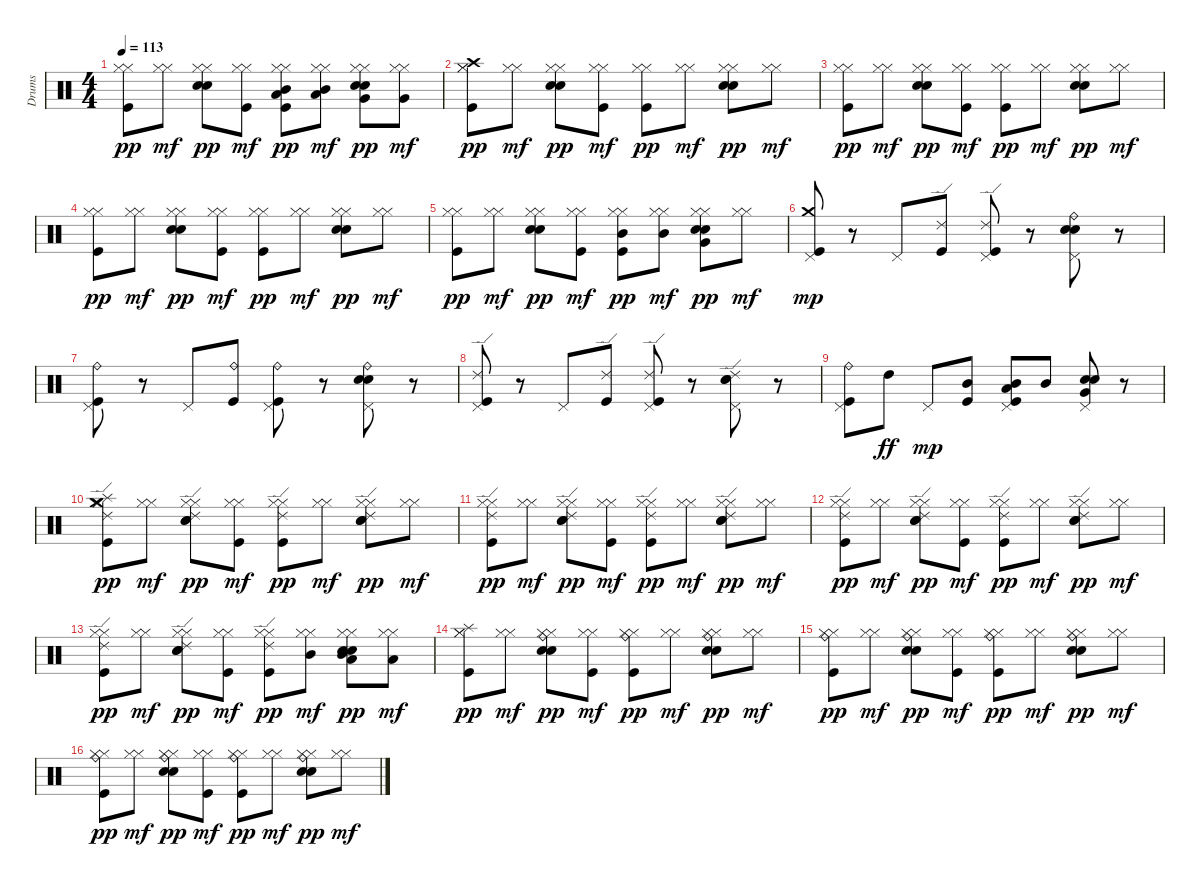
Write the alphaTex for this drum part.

\track ("Drums" "Drums") {instrument percussion}
\staff {score}
\articulation defaults
\ts (4 4)
\tempo 113
\clef neutral
\ks c
("Kick (hit)" "Hi-Hat (closed)" "Hi-Hat (closed)").8{dy pp} ("Hi-Hat (closed)" "Hi-Hat (closed)").8{dy mf} ("Snare (hit) 2" "Electric Snare (hit)" "Hi-Hat (closed)" "Hi-Hat (closed)").8{dy pp} ("Kick (hit)" "Hi-Hat (closed)" "Hi-Hat (closed)").8{dy mf} ("Low Tom (hit)" "Kick (hit)" "Hi-Hat (closed)" "Mid Tom (hit)" "Hi-Hat (closed)").8{dy pp} ("Low Tom (hit)" "Hi-Hat (closed)" "Mid Tom (hit)" "Hi-Hat (closed)").8{dy mf} ("Very Low Tom (hit)" "Snare (hit) 2" "Electric Snare (hit)" "Hi-Hat (closed)" "Hi-Hat (closed)").8{dy pp} ("Very Low Tom (hit)" "Hi-Hat (closed)" "Hi-Hat (closed)").8{dy mf} |
("Crash high (hit)" "Kick (hit)" "Hi-Hat (closed)" "Hi-Hat (closed)").8{dy pp} ("Hi-Hat (closed)" "Hi-Hat (closed)").8{dy mf} ("Snare (hit) 2" "Electric Snare (hit)" "Hi-Hat (closed)" "Hi-Hat (closed)").8{dy pp} ("Kick (hit)" "Hi-Hat (closed)" "Hi-Hat (closed)").8{dy mf} ("Kick (hit)" "Hi-Hat (closed)" "Hi-Hat (closed)").8{dy pp} ("Hi-Hat (closed)" "Hi-Hat (closed)").8{dy mf} ("Snare (hit) 2" "Electric Snare (hit)" "Hi-Hat (closed)" "Hi-Hat (closed)").8{dy pp} ("Hi-Hat (closed)" "Hi-Hat (closed)").8{dy mf} |
("Kick (hit)" "Hi-Hat (closed)" "Hi-Hat (closed)").8{dy pp} ("Hi-Hat (closed)" "Hi-Hat (closed)").8{dy mf} ("Snare (hit) 2" "Electric Snare (hit)" "Hi-Hat (closed)" "Hi-Hat (closed)").8{dy pp} ("Kick (hit)" "Hi-Hat (closed)" "Hi-Hat (closed)").8{dy mf} ("Kick (hit)" "Hi-Hat (closed)" "Hi-Hat (closed)").8{dy pp} ("Hi-Hat (closed)" "Hi-Hat (closed)").8{dy mf} ("Snare (hit) 2" "Electric Snare (hit)" "Hi-Hat (closed)" "Hi-Hat (closed)").8{dy pp} ("Hi-Hat (closed)" "Hi-Hat (closed)").8{dy mf} |
("Kick (hit)" "Hi-Hat (closed)" "Hi-Hat (closed)").8{dy pp} ("Hi-Hat (closed)" "Hi-Hat (closed)").8{dy mf} ("Snare (hit) 2" "Electric Snare (hit)" "Hi-Hat (closed)" "Hi-Hat (closed)").8{dy pp} ("Kick (hit)" "Hi-Hat (closed)" "Hi-Hat (closed)").8{dy mf} ("Kick (hit)" "Hi-Hat (closed)" "Hi-Hat (closed)").8{dy pp} ("Hi-Hat (closed)" "Hi-Hat (closed)").8{dy mf} ("Snare (hit) 2" "Electric Snare (hit)" "Hi-Hat (closed)" "Hi-Hat (closed)").8{dy pp} ("Hi-Hat (closed)" "Hi-Hat (closed)").8{dy mf} |
("Kick (hit)" "Hi-Hat (closed)" "Hi-Hat (closed)").8{dy pp} ("Hi-Hat (closed)" "Hi-Hat (closed)").8{dy mf} ("Snare (hit) 2" "Electric Snare (hit)" "Hi-Hat (closed)" "Hi-Hat (closed)").8{dy pp} ("Kick (hit)" "Hi-Hat (closed)" "Hi-Hat (closed)").8{dy mf} ("Mid Tom (hit)" "Kick (hit)" "Hi-Hat (closed)" "Hi-Hat (closed)").8{dy pp} ("Mid Tom (hit)" "Hi-Hat (closed)" "Hi-Hat (closed)").8{dy mf} ("Very Low Tom (hit)" "Snare (hit) 2" "Electric Snare (hit)" "Hi-Hat (closed)" "Hi-Hat (closed)").8{dy pp} ("Hi-Hat (closed)" "Hi-Hat (closed)").8{dy mf} |
("Crash medium (hit)" "Kick (hit)" "Pedal Hi-Hat (hit)").8{dy mp} r.8 "Pedal Hi-Hat (hit)".8 ("Ride (edge) 2" "Kick (hit)").8 ("Ride (edge) 2" "Kick (hit)" "Pedal Hi-Hat (hit)").8 r.8 ("Ride (bell)" "Snare (hit) 2" "Electric Snare (hit)" "Pedal Hi-Hat (hit)").8 r.8 |
("Ride (bell)" "Kick (hit)" "Pedal Hi-Hat (hit)").8 r.8 "Pedal Hi-Hat (hit)".8 ("Ride (bell)" "Kick (hit)").8 ("Ride (bell)" "Kick (hit)" "Pedal Hi-Hat (hit)").8 r.8 ("Ride (bell)" "Snare (hit) 2" "Electric Snare (hit)" "Pedal Hi-Hat (hit)").8 r.8 |
("Ride (edge) 2" "Kick (hit)" "Pedal Hi-Hat (hit)").8 r.8 "Pedal Hi-Hat (hit)".8 ("Ride (edge) 2" "Kick (hit)").8 ("Ride (edge) 2" "Kick (hit)" "Pedal Hi-Hat (hit)").8 r.8 ("Ride (edge) 2" "Snare (hit) 2" "Electric Snare (hit)" "Pedal Hi-Hat (hit)").8 r.8 |
("Ride (bell)" "Kick (hit)" "Pedal Hi-Hat (hit)").8 "High Tom (hit)".8{dy ff} "Pedal Hi-Hat (hit)".8{dy mp} ("Mid Tom (hit)" "Kick (hit)").8 ("Mid Tom (hit)" "Low Tom (hit)" "Kick (hit)" "Pedal Hi-Hat (hit)").8 "Mid Tom (hit)".8 ("Very Low Tom (hit)" "Snare (hit) 2" "Electric Snare (hit)" "Pedal Hi-Hat (hit)").8 r.8 |
("Crash medium (hit)" "Ride (edge) 2" "Splash (hit)" "Kick (hit)" "Hi-Hat (closed)" "Hi-Hat (closed)").8{dy pp} ("Hi-Hat (closed)" "Hi-Hat (closed)").8{dy mf} ("Ride (edge) 2" "Snare (hit) 2" "Electric Snare (hit)" "Hi-Hat (closed)" "Hi-Hat (closed)").8{dy pp} ("Kick (hit)" "Hi-Hat (closed)" "Hi-Hat (closed)").8{dy mf} ("Ride (edge) 2" "Kick (hit)" "Hi-Hat (closed)" "Hi-Hat (closed)").8{dy pp} ("Hi-Hat (closed)" "Hi-Hat (closed)").8{dy mf} ("Ride (edge) 2" "Snare (hit) 2" "Electric Snare (hit)" "Hi-Hat (closed)" "Hi-Hat (closed)").8{dy pp} ("Hi-Hat (closed)" "Hi-Hat (closed)").8{dy mf} |
("Ride (edge) 2" "Kick (hit)" "Hi-Hat (closed)" "Hi-Hat (closed)").8{dy pp} ("Hi-Hat (closed)" "Hi-Hat (closed)").8{dy mf} ("Ride (edge) 2" "Snare (hit) 2" "Electric Snare (hit)" "Hi-Hat (closed)" "Hi-Hat (closed)").8{dy pp} ("Kick (hit)" "Hi-Hat (closed)" "Hi-Hat (closed)").8{dy mf} ("Ride (edge) 2" "Kick (hit)" "Hi-Hat (closed)" "Hi-Hat (closed)").8{dy pp} ("Hi-Hat (closed)" "Hi-Hat (closed)").8{dy mf} ("Ride (edge) 2" "Snare (hit) 2" "Electric Snare (hit)" "Hi-Hat (closed)" "Hi-Hat (closed)").8{dy pp} ("Hi-Hat (closed)" "Hi-Hat (closed)").8{dy mf} |
("Ride (edge) 2" "Kick (hit)" "Hi-Hat (closed)" "Hi-Hat (closed)").8{dy pp} ("Hi-Hat (closed)" "Hi-Hat (closed)").8{dy mf} ("Ride (edge) 2" "Snare (hit) 2" "Electric Snare (hit)" "Hi-Hat (closed)" "Hi-Hat (closed)").8{dy pp} ("Kick (hit)" "Hi-Hat (closed)" "Hi-Hat (closed)").8{dy mf} ("Ride (edge) 2" "Kick (hit)" "Hi-Hat (closed)" "Hi-Hat (closed)").8{dy pp} ("Hi-Hat (closed)" "Hi-Hat (closed)").8{dy mf} ("Ride (edge) 2" "Snare (hit) 2" "Electric Snare (hit)" "Hi-Hat (closed)" "Hi-Hat (closed)").8{dy pp} ("Hi-Hat (closed)" "Hi-Hat (closed)").8{dy mf} |
("Ride (edge) 2" "Kick (hit)" "Hi-Hat (closed)" "Hi-Hat (closed)").8{dy pp} ("Hi-Hat (closed)" "Hi-Hat (closed)").8{dy mf} ("Ride (edge) 2" "Snare (hit) 2" "Electric Snare (hit)" "Hi-Hat (closed)" "Hi-Hat (closed)").8{dy pp} ("Kick (hit)" "Hi-Hat (closed)" "Hi-Hat (closed)").8{dy mf} ("Ride (edge) 2" "Kick (hit)" "Hi-Hat (closed)" "Hi-Hat (closed)").8{dy pp} ("Mid Tom (hit)" "Hi-Hat (closed)" "Hi-Hat (closed)").8{dy mf} ("Mid Tom (hit)" "Low Tom (hit)" "Snare (hit) 2" "Electric Snare (hit)" "Hi-Hat (closed)" "Hi-Hat (closed)").8{dy pp} ("Low Tom (hit)" "Hi-Hat (closed)" "Hi-Hat (closed)").8{dy mf} |
("Splash (hit)" "Kick (hit)" "Hi-Hat (closed)" "Hi-Hat (closed)").8{dy pp} ("Hi-Hat (closed)" "Hi-Hat (closed)").8{dy mf} ("Ride (bell)" "Snare (hit) 2" "Electric Snare (hit)" "Hi-Hat (closed)" "Hi-Hat (closed)").8{dy pp} ("Kick (hit)" "Hi-Hat (closed)" "Hi-Hat (closed)").8{dy mf} ("Ride (bell)" "Kick (hit)" "Hi-Hat (closed)" "Hi-Hat (closed)").8{dy pp} ("Hi-Hat (closed)" "Hi-Hat (closed)").8{dy mf} ("Ride (bell)" "Snare (hit) 2" "Electric Snare (hit)" "Hi-Hat (closed)" "Hi-Hat (closed)").8{dy pp} ("Hi-Hat (closed)" "Hi-Hat (closed)").8{dy mf} |
("Ride (bell)" "Kick (hit)" "Hi-Hat (closed)" "Hi-Hat (closed)").8{dy pp} ("Hi-Hat (closed)" "Hi-Hat (closed)").8{dy mf} ("Ride (bell)" "Snare (hit) 2" "Electric Snare (hit)" "Hi-Hat (closed)" "Hi-Hat (closed)").8{dy pp} ("Kick (hit)" "Hi-Hat (closed)" "Hi-Hat (closed)").8{dy mf} ("Ride (bell)" "Kick (hit)" "Hi-Hat (closed)" "Hi-Hat (closed)").8{dy pp} ("Hi-Hat (closed)" "Hi-Hat (closed)").8{dy mf} ("Ride (bell)" "Snare (hit) 2" "Electric Snare (hit)" "Hi-Hat (closed)" "Hi-Hat (closed)").8{dy pp} ("Hi-Hat (closed)" "Hi-Hat (closed)").8{dy mf} |
("Ride (bell)" "Kick (hit)" "Hi-Hat (closed)" "Hi-Hat (closed)").8{dy pp} ("Hi-Hat (closed)" "Hi-Hat (closed)").8{dy mf} ("Ride (bell)" "Snare (hit) 2" "Electric Snare (hit)" "Hi-Hat (closed)" "Hi-Hat (closed)").8{dy pp} ("Kick (hit)" "Hi-Hat (closed)" "Hi-Hat (closed)").8{dy mf} ("Ride (bell)" "Kick (hit)" "Hi-Hat (closed)" "Hi-Hat (closed)").8{dy pp} ("Hi-Hat (closed)" "Hi-Hat (closed)").8{dy mf} ("Ride (bell)" "Snare (hit) 2" "Electric Snare (hit)" "Hi-Hat (closed)" "Hi-Hat (closed)").8{dy pp} ("Hi-Hat (closed)" "Hi-Hat (closed)").8{dy mf}
